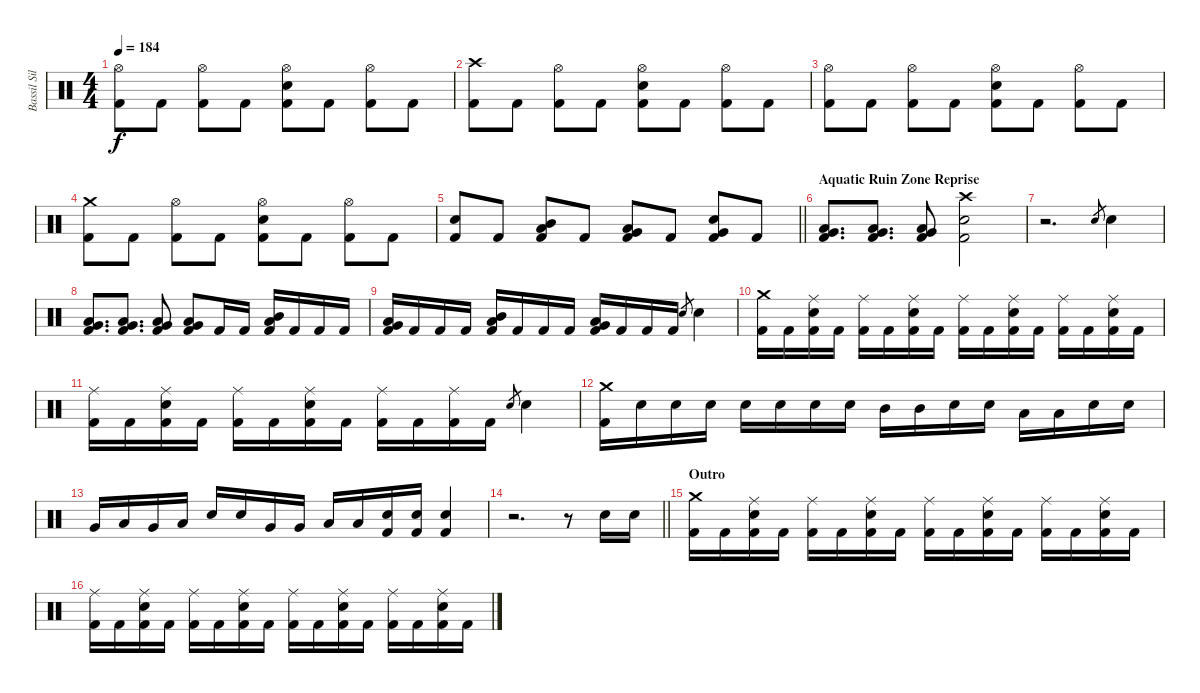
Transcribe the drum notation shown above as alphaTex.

\track ("Bassil Silver-Hajo" "Bassil Sil") {instrument percussion}
\staff {score}
\articulation defaults
\ts (4 4)
\tempo 184
\clef neutral
\ks c
("Hi-Hat (open)" "Kick (hit) 2").8{dy f} "Kick (hit) 2".8 ("Hi-Hat (open)" "Kick (hit) 2").8 "Kick (hit) 2".8 ("Hi-Hat (open)" "Snare (hit) 2" "Kick (hit) 2").8 "Kick (hit) 2".8 ("Hi-Hat (open)" "Kick (hit) 2").8 "Kick (hit) 2".8 |
("Crash high (hit)" "Kick (hit) 2").8 "Kick (hit) 2".8 ("Hi-Hat (open)" "Kick (hit) 2").8 "Kick (hit) 2".8 ("Hi-Hat (open)" "Snare (hit) 2" "Kick (hit) 2").8 "Kick (hit) 2".8 ("Hi-Hat (open)" "Kick (hit) 2").8 "Kick (hit) 2".8 |
("Hi-Hat (open)" "Kick (hit) 2").8 "Kick (hit) 2".8 ("Hi-Hat (open)" "Kick (hit) 2").8 "Kick (hit) 2".8 ("Hi-Hat (open)" "Snare (hit) 2" "Kick (hit) 2").8 "Kick (hit) 2".8 ("Hi-Hat (open)" "Kick (hit) 2").8 "Kick (hit) 2".8 |
("Crash medium (hit)" "Kick (hit) 2").8 "Kick (hit) 2".8 ("Hi-Hat (open)" "Kick (hit) 2").8 "Kick (hit) 2".8 ("Hi-Hat (open)" "Snare (hit) 2" "Kick (hit) 2").8 "Kick (hit) 2".8 ("Hi-Hat (open)" "Kick (hit) 2").8 "Kick (hit) 2".8 |
\barLineRight lightlight
("Snare (hit) 2" "Kick (hit) 2").8 "Kick (hit) 2".8 ("Mid Tom (hit)" "Low Tom (hit)" "Kick (hit) 2").8 "Kick (hit) 2".8 ("Low Tom (hit)" "Very Low Tom (hit)" "Kick (hit) 2").8 "Kick (hit) 2".8 ("Very Low Tom (hit)" "Snare (hit) 2" "Kick (hit) 2").8 "Kick (hit) 2".8 |
\section ("" "Aquatic Ruin Zone Reprise")
("Very Low Tom (hit)" "Low Floor Tom (hit)" "Kick (hit) 2").8{d} ("Low Tom (hit)" "Very Low Tom (hit)" "Kick (hit) 2").8{d} ("Low Tom (hit)" "Very Low Tom (hit)" "Kick (hit) 2").8 ("Crash high (hit)" "Snare (hit) 2" "Kick (hit) 2").2 |
r.2{d} "Snare (hit) 2".8{gr} "Snare (hit) 2".4 |
("Low Floor Tom (hit)" "Very Low Tom (hit)" "Kick (hit) 2").8{d} ("Low Floor Tom (hit)" "Very Low Tom (hit)" "Kick (hit) 2").8{d} ("Low Floor Tom (hit)" "Very Low Tom (hit)" "Kick (hit) 2").8 ("Low Tom (hit)" "Very Low Tom (hit)" "Kick (hit) 2").8 "Kick (hit) 2".16 "Kick (hit) 2".16 ("Mid Tom (hit)" "Low Tom (hit)" "Kick (hit) 2").16 "Kick (hit) 2".16 "Kick (hit) 2".16 "Kick (hit) 2".16 |
("Very Low Tom (hit)" "Low Tom (hit)" "Kick (hit) 2").16 "Kick (hit) 2".16 "Kick (hit) 2".16 "Kick (hit) 2".16 ("Low Tom (hit)" "Mid Tom (hit)" "Kick (hit) 2").16 "Kick (hit) 2".16 "Kick (hit) 2".16 "Kick (hit) 2".16 ("Very Low Tom (hit)" "Low Tom (hit)" "Kick (hit) 2").16 "Kick (hit) 2".16 "Kick (hit) 2".16 "Kick (hit) 2".16 "Snare (hit) 2".8{gr} "Snare (hit) 2".4 |
("Crash medium (hit)" "Kick (hit) 2").16 "Kick (hit) 2".16 ("Ride (middle)" "Snare (hit) 2" "Kick (hit) 2").16 "Kick (hit) 2".16 ("Ride (middle)" "Kick (hit) 2").16 "Kick (hit) 2".16 ("Ride (middle)" "Snare (hit) 2" "Kick (hit) 2").16 "Kick (hit) 2".16 ("Ride (middle)" "Kick (hit) 2").16 "Kick (hit) 2".16 ("Ride (middle)" "Snare (hit) 2" "Kick (hit) 2").16 "Kick (hit) 2".16 ("Ride (middle)" "Kick (hit) 2").16 "Kick (hit) 2".16 ("Ride (middle)" "Snare (hit) 2" "Kick (hit) 2").16 "Kick (hit) 2".16 |
("Ride (middle)" "Kick (hit) 2").16 "Kick (hit) 2".16 ("Ride (middle)" "Snare (hit) 2" "Kick (hit) 2").16 "Kick (hit) 2".16 ("Ride (middle)" "Kick (hit) 2").16 "Kick (hit) 2".16 ("Ride (middle)" "Snare (hit) 2" "Kick (hit) 2").16 "Kick (hit) 2".16 ("Ride (middle)" "Kick (hit) 2").16 "Kick (hit) 2".16 ("Ride (middle)" "Kick (hit) 2").16 "Kick (hit) 2".16 "Snare (hit) 2".8{gr} "Snare (hit) 2".4 |
("Crash medium (hit)" "Kick (hit) 2").16 "Snare (hit) 2".16 "Snare (hit) 2".16 "Snare (hit) 2".16 "Snare (hit) 2".16 "Snare (hit) 2".16 "Snare (hit) 2".16 "Snare (hit) 2".16 "Mid Tom (hit)".16 "Mid Tom (hit)".16 "Snare (hit) 2".16 "Snare (hit) 2".16 "Low Tom (hit)".16 "Low Tom (hit)".16 "Snare (hit) 2".16 "Snare (hit) 2".16 |
"Very Low Tom (hit)".16 "Low Tom (hit)".16 "Very Low Tom (hit)".16 "Low Tom (hit)".16 "Snare (hit) 2".16 "Snare (hit) 2".16 "Very Low Tom (hit)".16 "Very Low Tom (hit)".16 "Low Floor Tom (hit)".16 "Low Floor Tom (hit)".16 ("Snare (hit) 2" "Kick (hit) 2").16 ("Snare (hit) 2" "Kick (hit) 2").16 ("Snare (hit) 2" "Kick (hit) 2").4 |
\barLineRight lightlight
r.2{d} r.8 "Snare (hit) 2".16 "Snare (hit) 2".16 |
\section ("" "Outro")
("Crash medium (hit)" "Kick (hit) 2").16 "Kick (hit) 2".16 ("Ride (middle)" "Snare (hit) 2" "Kick (hit) 2").16 "Kick (hit) 2".16 ("Ride (middle)" "Kick (hit) 2").16 "Kick (hit) 2".16 ("Ride (middle)" "Snare (hit) 2" "Kick (hit) 2").16 "Kick (hit) 2".16 ("Ride (middle)" "Kick (hit) 2").16 "Kick (hit) 2".16 ("Ride (middle)" "Snare (hit) 2" "Kick (hit) 2").16 "Kick (hit) 2".16 ("Ride (middle)" "Kick (hit) 2").16 "Kick (hit) 2".16 ("Ride (middle)" "Snare (hit) 2" "Kick (hit) 2").16 "Kick (hit) 2".16 |
("Ride (middle)" "Kick (hit) 2").16 "Kick (hit) 2".16 ("Ride (middle)" "Snare (hit) 2" "Kick (hit) 2").16 "Kick (hit) 2".16 ("Ride (middle)" "Kick (hit) 2").16 "Kick (hit) 2".16 ("Ride (middle)" "Snare (hit) 2" "Kick (hit) 2").16 "Kick (hit) 2".16 ("Ride (middle)" "Kick (hit) 2").16 "Kick (hit) 2".16 ("Ride (middle)" "Snare (hit) 2" "Kick (hit) 2").16 "Kick (hit) 2".16 ("Ride (middle)" "Kick (hit) 2").16 "Kick (hit) 2".16 ("Ride (middle)" "Snare (hit) 2" "Kick (hit) 2").16 "Kick (hit) 2".16
